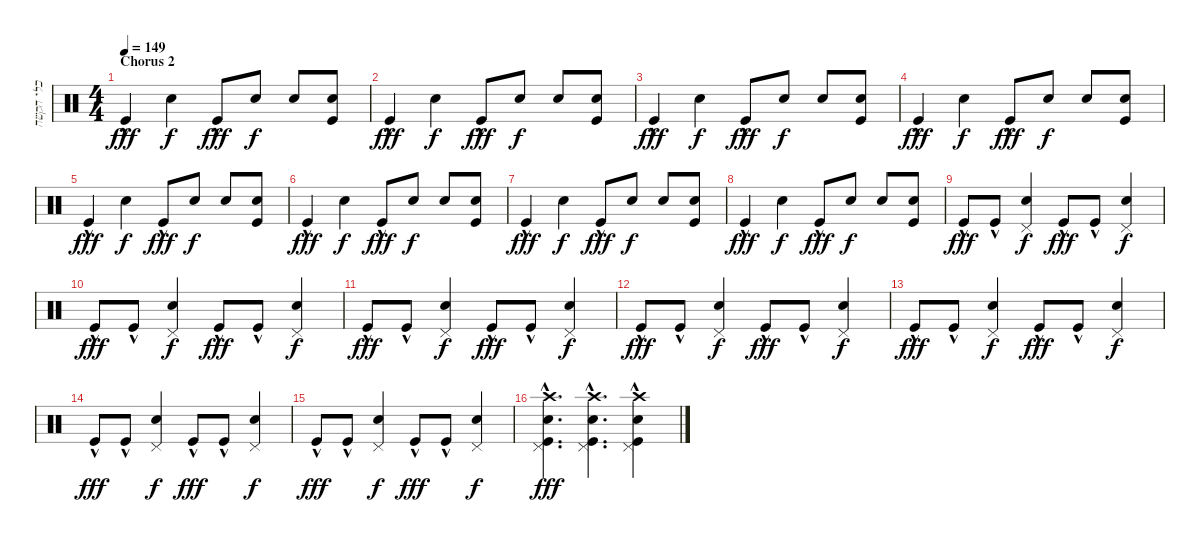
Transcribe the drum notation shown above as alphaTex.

\track ("כלי הקשה" "כלי הקשה") {instrument percussion}
\staff {score}
\articulation defaults
\ts (4 4)
\section ("" "Chorus 2")
\tempo 149
\clef neutral
\ks c "Kick (hit)"{hac}.4{dy fff} "Electric Snare (hit)".4{dy f} "Kick (hit)"{hac}.8{dy fff} "Electric Snare (hit)".8{dy f} "Electric Snare (hit)".8
("Electric Snare (hit)" "Kick (hit)").8 |
"Kick (hit)"{hac}.4{dy fff} "Electric Snare (hit)".4{dy f} "Kick (hit)"{hac}.8{dy fff} "Electric Snare (hit)".8{dy f} "Electric Snare (hit)".8 ("Electric Snare (hit)" "Kick (hit)").8 |
"Kick (hit)"{hac}.4{dy fff} "Electric Snare (hit)".4{dy f} "Kick (hit)"{hac}.8{dy fff} "Electric Snare (hit)".8{dy f} "Electric Snare (hit)".8 ("Electric Snare (hit)" "Kick (hit)").8 |
"Kick (hit)"{hac}.4{dy fff} "Electric Snare (hit)".4{dy f} "Kick (hit)"{hac}.8{dy fff} "Electric Snare (hit)".8{dy f} "Electric Snare (hit)".8 ("Electric Snare (hit)" "Kick (hit)").8 |
"Kick (hit)"{hac}.4{dy fff} "Electric Snare (hit)".4{dy f} "Kick (hit)"{hac}.8{dy fff} "Electric Snare (hit)".8{dy f} "Electric Snare (hit)".8 ("Electric Snare (hit)" "Kick (hit)").8 |
"Kick (hit)"{hac}.4{dy fff} "Electric Snare (hit)".4{dy f} "Kick (hit)"{hac}.8{dy fff} "Electric Snare (hit)".8{dy f} "Electric Snare (hit)".8 ("Electric Snare (hit)" "Kick (hit)").8 |
"Kick (hit)"{hac}.4{dy fff} "Electric Snare (hit)".4{dy f} "Kick (hit)"{hac}.8{dy fff} "Electric Snare (hit)".8{dy f} "Electric Snare (hit)".8 ("Electric Snare (hit)" "Kick (hit)").8 |
"Kick (hit)"{hac}.4{dy fff} "Electric Snare (hit)".4{dy f} "Kick (hit)"{hac}.8{dy fff} "Electric Snare (hit)".8{dy f} "Electric Snare (hit)".8 ("Electric Snare (hit)" "Kick (hit)").8 |
"Kick (hit)"{hac}.8{dy fff} "Kick (hit)"{hac}.8 ("Electric Snare (hit)" "Pedal Hi-Hat (hit)").4{dy f} "Kick (hit)"{hac}.8{dy fff} "Kick (hit)"{hac}.8 ("Electric Snare (hit)" "Pedal Hi-Hat (hit)").4{dy f} |
"Kick (hit)"{hac}.8{dy fff} "Kick (hit)"{hac}.8 ("Electric Snare (hit)" "Pedal Hi-Hat (hit)").4{dy f} "Kick (hit)"{hac}.8{dy fff} "Kick (hit)"{hac}.8 ("Electric Snare (hit)" "Pedal Hi-Hat (hit)").4{dy f} |
"Kick (hit)"{hac}.8{dy fff} "Kick (hit)"{hac}.8 ("Electric Snare (hit)" "Pedal Hi-Hat (hit)").4{dy f} "Kick (hit)"{hac}.8{dy fff} "Kick (hit)"{hac}.8 ("Electric Snare (hit)" "Pedal Hi-Hat (hit)").4{dy f} |
"Kick (hit)"{hac}.8{dy fff} "Kick (hit)"{hac}.8 ("Electric Snare (hit)" "Pedal Hi-Hat (hit)").4{dy f} "Kick (hit)"{hac}.8{dy fff} "Kick (hit)"{hac}.8 ("Electric Snare (hit)" "Pedal Hi-Hat (hit)").4{dy f} |
"Kick (hit)"{hac}.8{dy fff} "Kick (hit)"{hac}.8 ("Electric Snare (hit)" "Pedal Hi-Hat (hit)").4{dy f} "Kick (hit)"{hac}.8{dy fff} "Kick (hit)"{hac}.8 ("Electric Snare (hit)" "Pedal Hi-Hat (hit)").4{dy f} |
"Kick (hit)"{hac}.8{dy fff} "Kick (hit)"{hac}.8 ("Electric Snare (hit)" "Pedal Hi-Hat (hit)").4{dy f} "Kick (hit)"{hac}.8{dy fff} "Kick (hit)"{hac}.8 ("Electric Snare (hit)" "Pedal Hi-Hat (hit)").4{dy f} |
"Kick (hit)"{hac}.8{dy fff} "Kick (hit)"{hac}.8 ("Electric Snare (hit)" "Pedal Hi-Hat (hit)").4{dy f} "Kick (hit)"{hac}.8{dy fff} "Kick (hit)"{hac}.8 ("Electric Snare (hit)" "Pedal Hi-Hat (hit)").4{dy f} |
("Electric Snare (hit)"{hac} "Kick (hit)"{hac} "Pedal Hi-Hat (hit)"{hac} "Crash high (hit)"{hac}).4{d dy fff} ("Electric Snare (hit)"{hac} "Kick (hit)"{hac} "Pedal Hi-Hat (hit)"{hac} "Crash high (hit)"{hac}).4{d} ("Electric Snare (hit)"{hac} "Kick (hit)"{hac} "Pedal Hi-Hat (hit)"{hac} "Crash high (hit)"{hac}).4
